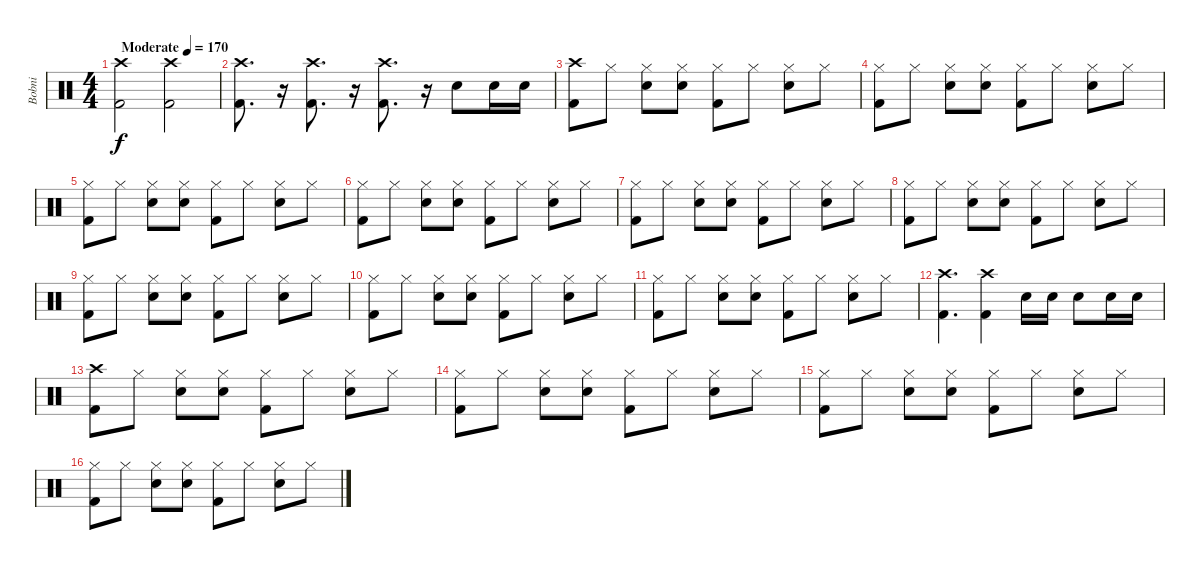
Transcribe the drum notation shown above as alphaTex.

\track ("Bobni" "Bobni") {instrument percussion}
\staff {score}
\articulation defaults
\ts (4 4)
\tempo (170 "Moderate")
\clef neutral
\ks c
("Crash high (hit)" "Kick (hit) 2").2{dy f} ("Crash high (hit)" "Kick (hit) 2").2 |
("Crash high (hit)" "Kick (hit) 2").8{d} r.16 ("Crash high (hit)" "Kick (hit) 2").8{d} r.16 ("Crash high (hit)" "Kick (hit) 2").8{d} r.16 "Snare (hit) 2".8 "Snare (hit) 2".16 "Snare (hit) 2".16 |
("Crash high (hit)" "Kick (hit) 2").8 "Hi-Hat (closed)".8 ("Hi-Hat (closed)" "Snare (hit) 2").8 ("Hi-Hat (closed)" "Snare (hit) 2").8 ("Hi-Hat (closed)" "Kick (hit) 2").8 "Hi-Hat (closed)".8 ("Hi-Hat (closed)" "Snare (hit) 2").8 "Hi-Hat (closed)".8 |
("Hi-Hat (closed)" "Kick (hit) 2").8 "Hi-Hat (closed)".8 ("Hi-Hat (closed)" "Snare (hit) 2").8 ("Hi-Hat (closed)" "Snare (hit) 2").8 ("Hi-Hat (closed)" "Kick (hit) 2").8 "Hi-Hat (closed)".8 ("Hi-Hat (closed)" "Snare (hit) 2").8 "Hi-Hat (closed)".8 |
("Hi-Hat (closed)" "Kick (hit) 2").8 "Hi-Hat (closed)".8 ("Hi-Hat (closed)" "Snare (hit) 2").8 ("Hi-Hat (closed)" "Snare (hit) 2").8 ("Hi-Hat (closed)" "Kick (hit) 2").8 "Hi-Hat (closed)".8 ("Hi-Hat (closed)" "Snare (hit) 2").8 "Hi-Hat (closed)".8 |
("Hi-Hat (closed)" "Kick (hit) 2").8 "Hi-Hat (closed)".8 ("Hi-Hat (closed)" "Snare (hit) 2").8 ("Hi-Hat (closed)" "Snare (hit) 2").8 ("Hi-Hat (closed)" "Kick (hit) 2").8 "Hi-Hat (closed)".8 ("Hi-Hat (closed)" "Snare (hit) 2").8 "Hi-Hat (closed)".8 |
("Hi-Hat (closed)" "Kick (hit) 2").8 "Hi-Hat (closed)".8 ("Hi-Hat (closed)" "Snare (hit) 2").8 ("Hi-Hat (closed)" "Snare (hit) 2").8 ("Hi-Hat (closed)" "Kick (hit) 2").8 "Hi-Hat (closed)".8 ("Hi-Hat (closed)" "Snare (hit) 2").8 "Hi-Hat (closed)".8 |
("Hi-Hat (closed)" "Kick (hit) 2").8 "Hi-Hat (closed)".8 ("Hi-Hat (closed)" "Snare (hit) 2").8 ("Hi-Hat (closed)" "Snare (hit) 2").8 ("Hi-Hat (closed)" "Kick (hit) 2").8 "Hi-Hat (closed)".8 ("Hi-Hat (closed)" "Snare (hit) 2").8 "Hi-Hat (closed)".8 |
("Hi-Hat (closed)" "Kick (hit) 2").8 "Hi-Hat (closed)".8 ("Hi-Hat (closed)" "Snare (hit) 2").8 ("Hi-Hat (closed)" "Snare (hit) 2").8 ("Hi-Hat (closed)" "Kick (hit) 2").8 "Hi-Hat (closed)".8 ("Hi-Hat (closed)" "Snare (hit) 2").8 "Hi-Hat (closed)".8 |
("Hi-Hat (closed)" "Kick (hit) 2").8 "Hi-Hat (closed)".8 ("Hi-Hat (closed)" "Snare (hit) 2").8 ("Hi-Hat (closed)" "Snare (hit) 2").8 ("Hi-Hat (closed)" "Kick (hit) 2").8 "Hi-Hat (closed)".8 ("Hi-Hat (closed)" "Snare (hit) 2").8 "Hi-Hat (closed)".8 |
("Hi-Hat (closed)" "Kick (hit) 2").8 "Hi-Hat (closed)".8 ("Hi-Hat (closed)" "Snare (hit) 2").8 ("Hi-Hat (closed)" "Snare (hit) 2").8 ("Hi-Hat (closed)" "Kick (hit) 2").8 "Hi-Hat (closed)".8 ("Hi-Hat (closed)" "Snare (hit) 2").8 "Hi-Hat (closed)".8 |
("Crash high (hit)" "Kick (hit) 2").4{d} ("Crash high (hit)" "Kick (hit) 2").4 "Snare (hit) 2".16 "Snare (hit) 2".16 "Snare (hit) 2".8 "Snare (hit) 2".16 "Snare (hit) 2".16 |
("Crash high (hit)" "Kick (hit) 2").8 "Hi-Hat (closed)".8 ("Hi-Hat (closed)" "Snare (hit) 2").8 ("Hi-Hat (closed)" "Snare (hit) 2").8 ("Hi-Hat (closed)" "Kick (hit) 2").8 "Hi-Hat (closed)".8 ("Hi-Hat (closed)" "Snare (hit) 2").8 "Hi-Hat (closed)".8 |
("Hi-Hat (closed)" "Kick (hit) 2").8 "Hi-Hat (closed)".8 ("Hi-Hat (closed)" "Snare (hit) 2").8 ("Hi-Hat (closed)" "Snare (hit) 2").8 ("Hi-Hat (closed)" "Kick (hit) 2").8 "Hi-Hat (closed)".8 ("Hi-Hat (closed)" "Snare (hit) 2").8 "Hi-Hat (closed)".8 |
("Hi-Hat (closed)" "Kick (hit) 2").8 "Hi-Hat (closed)".8 ("Hi-Hat (closed)" "Snare (hit) 2").8 ("Hi-Hat (closed)" "Snare (hit) 2").8 ("Hi-Hat (closed)" "Kick (hit) 2").8 "Hi-Hat (closed)".8 ("Hi-Hat (closed)" "Snare (hit) 2").8 "Hi-Hat (closed)".8 |
("Hi-Hat (closed)" "Kick (hit) 2").8 "Hi-Hat (closed)".8 ("Hi-Hat (closed)" "Snare (hit) 2").8 ("Hi-Hat (closed)" "Snare (hit) 2").8 ("Hi-Hat (closed)" "Kick (hit) 2").8 "Hi-Hat (closed)".8 ("Hi-Hat (closed)" "Snare (hit) 2").8 "Hi-Hat (closed)".8
